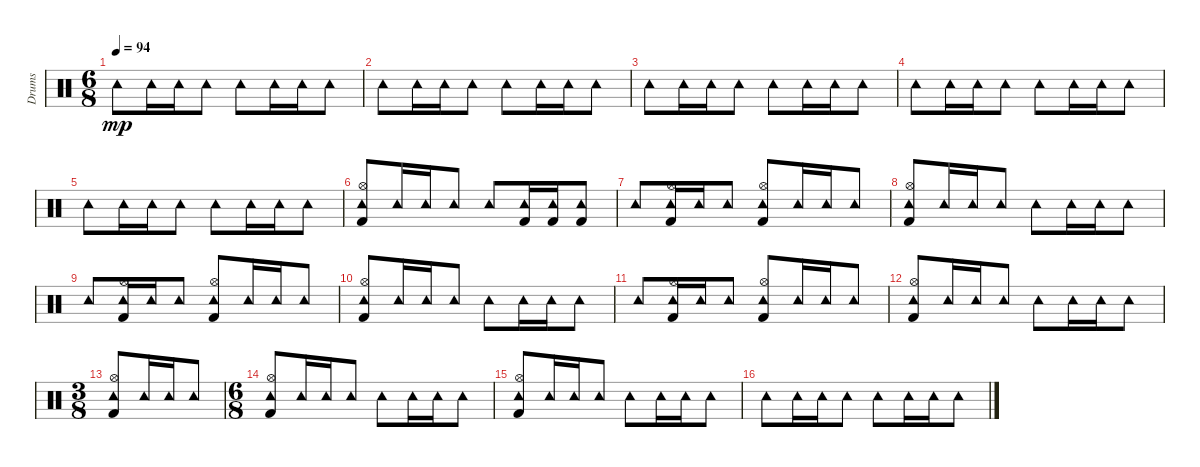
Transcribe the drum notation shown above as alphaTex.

\track ("Drums" "Drums") {instrument percussion}
\staff {score}
\articulation defaults
\ts (6 8)
\tempo 94
\clef neutral
\ks c "Tambourine (hit)".8{dy mp} "Tambourine (hit)".16 "Tambourine (hit)".16 "Tambourine (hit)".8 "Tambourine (hit)".8 "Tambourine (hit)".16 "Tambourine (hit)".16 "Tambourine (hit)".8
|
"Tambourine (hit)".8 "Tambourine (hit)".16 "Tambourine (hit)".16 "Tambourine (hit)".8 "Tambourine (hit)".8 "Tambourine (hit)".16 "Tambourine (hit)".16 "Tambourine (hit)".8 |
"Tambourine (hit)".8 "Tambourine (hit)".16 "Tambourine (hit)".16 "Tambourine (hit)".8 "Tambourine (hit)".8 "Tambourine (hit)".16 "Tambourine (hit)".16 "Tambourine (hit)".8 |
"Tambourine (hit)".8 "Tambourine (hit)".16 "Tambourine (hit)".16 "Tambourine (hit)".8 "Tambourine (hit)".8 "Tambourine (hit)".16 "Tambourine (hit)".16 "Tambourine (hit)".8 |
"Tambourine (hit)".8 "Tambourine (hit)".16 "Tambourine (hit)".16 "Tambourine (hit)".8 "Tambourine (hit)".8 "Tambourine (hit)".16 "Tambourine (hit)".16 "Tambourine (hit)".8 |
("Hi-Hat (open)" "Tambourine (hit)" "Kick (hit) 2").8 "Tambourine (hit)".16 "Tambourine (hit)".16 "Tambourine (hit)".8 "Tambourine (hit)".8 ("Tambourine (hit)" "Kick (hit) 2").16 ("Tambourine (hit)" "Kick (hit) 2").16 ("Tambourine (hit)" "Kick (hit) 2").8 |
"Tambourine (hit)".8 ("Hi-Hat (open)" "Tambourine (hit)" "Kick (hit) 2").16 "Tambourine (hit)".16 "Tambourine (hit)".8 ("Hi-Hat (open)" "Tambourine (hit)" "Kick (hit) 2").8 "Tambourine (hit)".16 "Tambourine (hit)".16 "Tambourine (hit)".8 |
("Hi-Hat (open)" "Tambourine (hit)" "Kick (hit) 2").8 "Tambourine (hit)".16 "Tambourine (hit)".16 "Tambourine (hit)".8 "Tambourine (hit)".8 "Tambourine (hit)".16 "Tambourine (hit)".16 "Tambourine (hit)".8 |
"Tambourine (hit)".8 ("Hi-Hat (open)" "Tambourine (hit)" "Kick (hit) 2").16 "Tambourine (hit)".16 "Tambourine (hit)".8 ("Hi-Hat (open)" "Tambourine (hit)" "Kick (hit) 2").8 "Tambourine (hit)".16 "Tambourine (hit)".16 "Tambourine (hit)".8 |
("Hi-Hat (open)" "Tambourine (hit)" "Kick (hit) 2").8 "Tambourine (hit)".16 "Tambourine (hit)".16 "Tambourine (hit)".8 "Tambourine (hit)".8 "Tambourine (hit)".16 "Tambourine (hit)".16 "Tambourine (hit)".8 |
"Tambourine (hit)".8 ("Hi-Hat (open)" "Tambourine (hit)" "Kick (hit) 2").16 "Tambourine (hit)".16 "Tambourine (hit)".8 ("Hi-Hat (open)" "Tambourine (hit)" "Kick (hit) 2").8 "Tambourine (hit)".16 "Tambourine (hit)".16 "Tambourine (hit)".8 |
("Hi-Hat (open)" "Tambourine (hit)" "Kick (hit) 2").8 "Tambourine (hit)".16 "Tambourine (hit)".16 "Tambourine (hit)".8 "Tambourine (hit)".8 "Tambourine (hit)".16 "Tambourine (hit)".16 "Tambourine (hit)".8 |
\ts (3 8)
("Hi-Hat (open)" "Tambourine (hit)" "Kick (hit) 2").8 "Tambourine (hit)".16 "Tambourine (hit)".16 "Tambourine (hit)".8 |
\ts (6 8)
("Hi-Hat (open)" "Tambourine (hit)" "Kick (hit) 2").8 "Tambourine (hit)".16 "Tambourine (hit)".16 "Tambourine (hit)".8 "Tambourine (hit)".8 "Tambourine (hit)".16 "Tambourine (hit)".16 "Tambourine (hit)".8 |
("Hi-Hat (open)" "Tambourine (hit)" "Kick (hit) 2").8 "Tambourine (hit)".16 "Tambourine (hit)".16 "Tambourine (hit)".8 "Tambourine (hit)".8 "Tambourine (hit)".16 "Tambourine (hit)".16 "Tambourine (hit)".8 |
"Tambourine (hit)".8 "Tambourine (hit)".16 "Tambourine (hit)".16 "Tambourine (hit)".8 "Tambourine (hit)".8 "Tambourine (hit)".16 "Tambourine (hit)".16 "Tambourine (hit)".8
